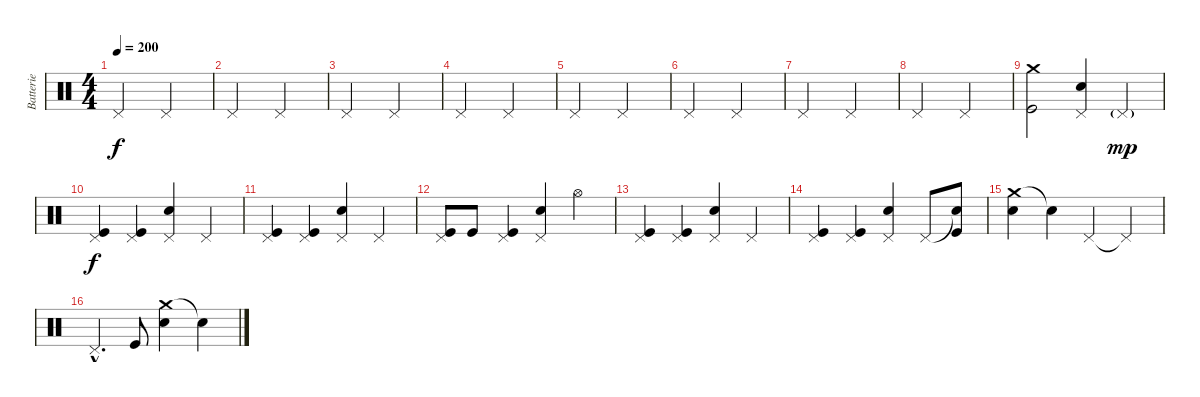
\track ("Batterie" "Batterie") {instrument percussion}
\staff {score}
\articulation defaults
\ts (4 4)
\tempo 200
\clef neutral
\ks c "Pedal Hi-Hat (hit)".2{dy f} "Pedal Hi-Hat (hit)".2
|
"Pedal Hi-Hat (hit)".2 "Pedal Hi-Hat (hit)".2 |
"Pedal Hi-Hat (hit)".2 "Pedal Hi-Hat (hit)".2 |
"Pedal Hi-Hat (hit)".2 "Pedal Hi-Hat (hit)".2 |
"Pedal Hi-Hat (hit)".2 "Pedal Hi-Hat (hit)".2 |
"Pedal Hi-Hat (hit)".2 "Pedal Hi-Hat (hit)".2 |
"Pedal Hi-Hat (hit)".2 "Pedal Hi-Hat (hit)".2 |
"Pedal Hi-Hat (hit)".2 "Pedal Hi-Hat (hit)".2 |
("Crash medium (hit)" "Kick (hit)").2 ("Pedal Hi-Hat (hit)" "Snare (hit) 2").4 "Pedal Hi-Hat (hit)"{g}.4{dy mp} |
("Pedal Hi-Hat (hit)" "Kick (hit)").4{dy f} ("Pedal Hi-Hat (hit)" "Kick (hit)").4 ("Pedal Hi-Hat (hit)" "Snare (hit) 2").4 "Pedal Hi-Hat (hit)".4 |
("Pedal Hi-Hat (hit)" "Kick (hit)").4 ("Pedal Hi-Hat (hit)" "Kick (hit)").4 ("Pedal Hi-Hat (hit)" "Snare (hit) 2").4 "Pedal Hi-Hat (hit)".4 |
("Pedal Hi-Hat (hit)" "Kick (hit)").8 "Kick (hit)".8 ("Pedal Hi-Hat (hit)" "Kick (hit)").4 ("Pedal Hi-Hat (hit)" "Snare (hit) 2").4 "Hi-Hat (open)".4 |
("Pedal Hi-Hat (hit)" "Kick (hit)").4 ("Pedal Hi-Hat (hit)" "Kick (hit)").4 ("Pedal Hi-Hat (hit)" "Snare (hit) 2").4 "Pedal Hi-Hat (hit)".4 |
("Pedal Hi-Hat (hit)" "Kick (hit)").4 ("Pedal Hi-Hat (hit)" "Kick (hit)").4 ("Pedal Hi-Hat (hit)" "Snare (hit) 2").4 "Pedal Hi-Hat (hit)".8 ("Snare (hit)"{t} "Kick (hit)").8 |
("Crash medium (hit)" "Snare (hit) 2").4 "Snare (hit)"{t}.4 "Pedal Hi-Hat (hit)".4 "Pedal Hi-Hat (hit)"{t}.4 |
"Pedal Hi-Hat (hit)"{hac}.4{d} "Kick (hit)".8 ("Crash medium (hit)" "Snare (hit) 2").4 "Snare (hit)"{t}.4
